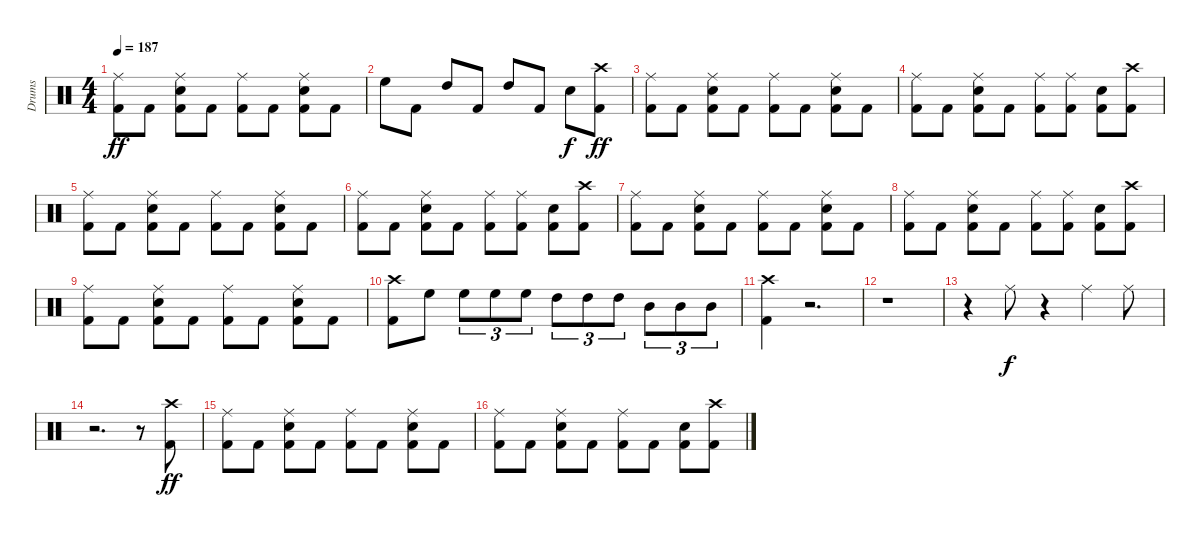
\track ("Drums" "Drums") {instrument percussion}
\staff {score}
\articulation defaults
\ts (4 4)
\tempo 187
\clef neutral
\ks c
("Ride (middle)" "Kick (hit) 2").8{dy ff} "Kick (hit) 2".8 ("Ride (middle)" "Electric Snare (hit)" "Kick (hit) 2").8 "Kick (hit) 2".8 ("Ride (middle)" "Kick (hit) 2").8 "Kick (hit) 2".8 ("Ride (middle)" "Electric Snare (hit)" "Kick (hit) 2").8 "Kick (hit) 2".8 |
"High Floor Tom (hit)".8 "Kick (hit) 2".8 "High Tom (hit)".8 "Kick (hit) 2".8 "High Tom (hit)".8 "Kick (hit) 2".8 "Electric Snare (hit)".8{dy f} ("Crash high (hit)" "Kick (hit) 2").8{dy ff} |
("Ride (middle)" "Kick (hit) 2").8 "Kick (hit) 2".8 ("Ride (middle)" "Electric Snare (hit)" "Kick (hit) 2").8 "Kick (hit) 2".8 ("Ride (middle)" "Kick (hit) 2").8 "Kick (hit) 2".8 ("Ride (middle)" "Electric Snare (hit)" "Kick (hit) 2").8 "Kick (hit) 2".8 |
("Ride (middle)" "Kick (hit) 2").8 "Kick (hit) 2".8 ("Ride (middle)" "Electric Snare (hit)" "Kick (hit) 2").8 "Kick (hit) 2".8 ("Ride (middle)" "Kick (hit) 2").8 ("Ride (middle)" "Kick (hit) 2").8 ("Electric Snare (hit)" "Kick (hit) 2").8 ("Crash high (hit)" "Kick (hit) 2").8 |
("Ride (middle)" "Kick (hit) 2").8 "Kick (hit) 2".8 ("Ride (middle)" "Electric Snare (hit)" "Kick (hit) 2").8 "Kick (hit) 2".8 ("Ride (middle)" "Kick (hit) 2").8 "Kick (hit) 2".8 ("Ride (middle)" "Electric Snare (hit)" "Kick (hit) 2").8 "Kick (hit) 2".8 |
("Ride (middle)" "Kick (hit) 2").8 "Kick (hit) 2".8 ("Ride (middle)" "Electric Snare (hit)" "Kick (hit) 2").8 "Kick (hit) 2".8 ("Ride (middle)" "Kick (hit) 2").8 ("Ride (middle)" "Kick (hit) 2").8 ("Electric Snare (hit)" "Kick (hit) 2").8 ("Crash high (hit)" "Kick (hit) 2").8 |
("Ride (middle)" "Kick (hit) 2").8 "Kick (hit) 2".8 ("Ride (middle)" "Electric Snare (hit)" "Kick (hit) 2").8 "Kick (hit) 2".8 ("Ride (middle)" "Kick (hit) 2").8 "Kick (hit) 2".8 ("Ride (middle)" "Electric Snare (hit)" "Kick (hit) 2").8 "Kick (hit) 2".8 |
("Ride (middle)" "Kick (hit) 2").8 "Kick (hit) 2".8 ("Ride (middle)" "Electric Snare (hit)" "Kick (hit) 2").8 "Kick (hit) 2".8 ("Ride (middle)" "Kick (hit) 2").8 ("Ride (middle)" "Kick (hit) 2").8 ("Electric Snare (hit)" "Kick (hit) 2").8 ("Crash high (hit)" "Kick (hit) 2").8 |
("Ride (middle)" "Kick (hit) 2").8 "Kick (hit) 2".8 ("Ride (middle)" "Electric Snare (hit)" "Kick (hit) 2").8 "Kick (hit) 2".8 ("Ride (middle)" "Kick (hit) 2").8 "Kick (hit) 2".8 ("Ride (middle)" "Electric Snare (hit)" "Kick (hit) 2").8 "Kick (hit) 2".8 |
("Crash high (hit)" "Kick (hit) 2").8 "High Floor Tom (hit)".8 "High Floor Tom (hit)".8{tu (3 2)} "High Floor Tom (hit)".8{tu (3 2)} "High Floor Tom (hit)".8{tu (3 2)} "High Tom (hit)".8{tu (3 2)} "High Tom (hit)".8{tu (3 2)} "High Tom (hit)".8{tu (3 2)} "Mid Tom (hit)".8{tu (3 2)} "Mid Tom (hit)".8{tu (3 2)} "Mid Tom (hit)".8{tu (3 2)} |
("Crash high (hit)" "Kick (hit) 2").4 r.2{d} |
r.1 |
r.4 "Ride (middle)".8{dy f} r.4 "Ride (middle)".4 "Ride (middle)".8 |
r.2{d} r.8 ("Crash high (hit)" "Kick (hit) 2").8{dy ff} |
("Ride (middle)" "Kick (hit) 2").8 "Kick (hit) 2".8 ("Ride (middle)" "Electric Snare (hit)" "Kick (hit) 2").8 "Kick (hit) 2".8 ("Ride (middle)" "Kick (hit) 2").8 "Kick (hit) 2".8 ("Ride (middle)" "Electric Snare (hit)" "Kick (hit) 2").8 "Kick (hit) 2".8 |
("Ride (middle)" "Kick (hit) 2").8 "Kick (hit) 2".8 ("Ride (middle)" "Electric Snare (hit)" "Kick (hit) 2").8 "Kick (hit) 2".8 ("Ride (middle)" "Kick (hit) 2").8 "Kick (hit) 2".8 ("Electric Snare (hit)" "Kick (hit) 2").8 ("Crash high (hit)" "Kick (hit) 2").8
